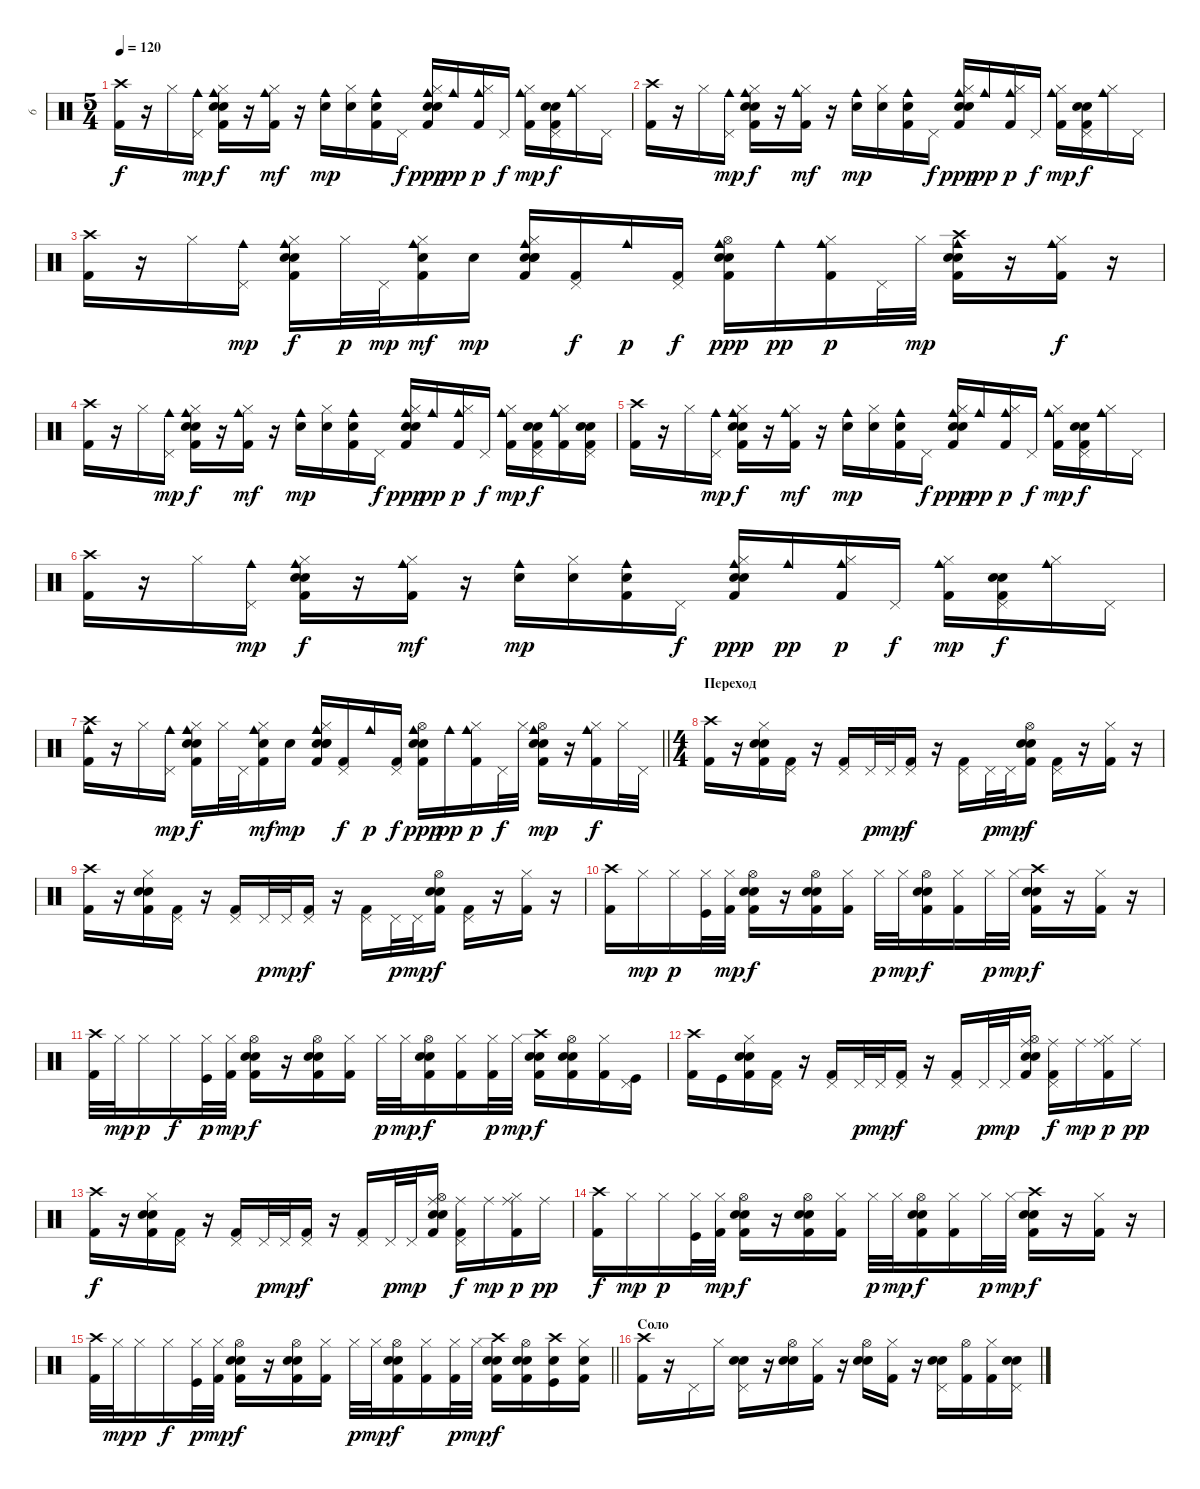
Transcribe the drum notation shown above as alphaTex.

\track ("6" "6") {instrument percussion}
\staff {score}
\articulation defaults
\ts (5 4)
\tempo 120
\clef neutral
\ks c
("Crash high (hit)" "Kick (hit) 2").16{dy f} r.16 "Hi-Hat (closed)".16 ("Pedal Hi-Hat (hit)" "Cowbell medium (hit)").16{dy mp} ("Hi-Hat (closed)" "Cowbell medium (hit)" "Kick (hit) 2" "Snare (hit)" "Snare (hit) 2").16{dy f} r.16 ("Hi-Hat (closed)" "Cowbell medium (hit)" "Kick (hit) 2").16{dy mf} r.16 ("Cowbell medium (hit)" "Snare (hit) 2").16{dy mp} ("Hi-Hat (closed)" "Snare (hit) 2").16 ("Cowbell medium (hit)" "Snare (hit) 2" "Kick (hit) 2").16 "Pedal Hi-Hat (hit)".16{dy f} ("Hi-Hat (closed)" "Cowbell medium (hit)" "Kick (hit) 2" "Snare (hit)" "Snare (hit) 2").16{dy ppp} "Cowbell medium (hit)".16{dy pp} ("Hi-Hat (closed)" "Cowbell medium (hit)" "Kick (hit) 2").16{dy p} "Pedal Hi-Hat (hit)".16{dy f} ("Hi-Hat (closed)" "Cowbell medium (hit)" "Kick (hit) 2").16{dy mp} ("Pedal Hi-Hat (hit)" "Kick (hit) 2" "Snare (hit)" "Snare (hit) 2").16{dy f} ("Hi-Hat (closed)" "Cowbell medium (hit)").16 "Pedal Hi-Hat (hit)".16 |
("Crash high (hit)" "Kick (hit) 2").16 r.16 "Hi-Hat (closed)".16 ("Pedal Hi-Hat (hit)" "Cowbell medium (hit)").16{dy mp} ("Hi-Hat (closed)" "Cowbell medium (hit)" "Kick (hit) 2" "Snare (hit)" "Snare (hit) 2").16{dy f} r.16 ("Hi-Hat (closed)" "Cowbell medium (hit)" "Kick (hit) 2").16{dy mf} r.16 ("Cowbell medium (hit)" "Snare (hit) 2").16{dy mp} ("Hi-Hat (closed)" "Snare (hit) 2").16 ("Cowbell medium (hit)" "Snare (hit) 2" "Kick (hit) 2").16 "Pedal Hi-Hat (hit)".16{dy f} ("Hi-Hat (closed)" "Cowbell medium (hit)" "Kick (hit) 2" "Snare (hit)" "Snare (hit) 2").16{dy ppp} "Cowbell medium (hit)".16{dy pp} ("Hi-Hat (closed)" "Cowbell medium (hit)" "Kick (hit) 2").16{dy p} "Pedal Hi-Hat (hit)".16{dy f} ("Hi-Hat (closed)" "Cowbell medium (hit)" "Kick (hit) 2").16{dy mp} ("Pedal Hi-Hat (hit)" "Kick (hit) 2" "Snare (hit)" "Snare (hit) 2").16{dy f} ("Hi-Hat (closed)" "Cowbell medium (hit)").16 "Pedal Hi-Hat (hit)".16 |
("Crash high (hit)" "Kick (hit) 2").16 r.16 "Hi-Hat (closed)".16 ("Pedal Hi-Hat (hit)" "Cowbell medium (hit)").16{dy mp} ("Hi-Hat (closed)" "Cowbell medium (hit)" "Kick (hit) 2" "Snare (hit)" "Snare (hit) 2").16{dy f} "Hi-Hat (closed)".32{dy p} "Pedal Hi-Hat (hit)".32{dy mp} ("Hi-Hat (closed)" "Snare (hit) 2" "Cowbell medium (hit)" "Kick (hit) 2").16{dy mf} "Snare (hit) 2".16{dy mp} ("Hi-Hat (closed)" "Snare (hit) 2" "Cowbell medium (hit)" "Kick (hit) 2" "Snare (hit)" "Snare (hit) 2").16 ("Pedal Hi-Hat (hit)" "Kick (hit) 2").16{dy f} "Cowbell medium (hit)".16{dy p} ("Pedal Hi-Hat (hit)" "Kick (hit) 2").16{dy f} ("Hi-Hat (open)" "Cowbell medium (hit)" "Kick (hit) 2" "Snare (hit)" "Snare (hit) 2").16{dy ppp} "Cowbell medium (hit)".16{dy pp} ("Hi-Hat (closed)" "Cowbell medium (hit)" "Kick (hit) 2").16{dy p} "Pedal Hi-Hat (hit)".32 "Hi-Hat (closed)".32{dy mp} ("Crash high (hit)" "Cowbell medium (hit)" "Kick (hit) 2" "Snare (hit)" "Snare (hit) 2").16 r.16 ("Hi-Hat (closed)" "Cowbell medium (hit)" "Kick (hit) 2").16{dy f} r.16 |
("Crash high (hit)" "Kick (hit) 2").16 r.16 "Hi-Hat (closed)".16 ("Pedal Hi-Hat (hit)" "Cowbell medium (hit)").16{dy mp} ("Hi-Hat (closed)" "Cowbell medium (hit)" "Kick (hit) 2" "Snare (hit)" "Snare (hit) 2").16{dy f} r.16 ("Hi-Hat (closed)" "Cowbell medium (hit)" "Kick (hit) 2").16{dy mf} r.16 ("Cowbell medium (hit)" "Snare (hit) 2").16{dy mp} ("Hi-Hat (closed)" "Snare (hit) 2").16 ("Cowbell medium (hit)" "Snare (hit) 2" "Kick (hit) 2").16 "Pedal Hi-Hat (hit)".16{dy f} ("Hi-Hat (closed)" "Cowbell medium (hit)" "Kick (hit) 2" "Snare (hit)" "Snare (hit) 2").16{dy ppp} "Cowbell medium (hit)".16{dy pp} ("Hi-Hat (closed)" "Cowbell medium (hit)" "Kick (hit) 2").16{dy p} "Pedal Hi-Hat (hit)".16{dy f} ("Hi-Hat (closed)" "Cowbell medium (hit)" "Kick (hit) 2").16{dy mp} ("Pedal Hi-Hat (hit)" "Kick (hit) 2" "Snare (hit)" "Snare (hit) 2").16{dy f} ("Hi-Hat (closed)" "Cowbell medium (hit)" "Kick (hit) 2").16 ("Pedal Hi-Hat (hit)" "Kick (hit) 2" "Snare (hit)" "Snare (hit) 2").16 |
("Crash high (hit)" "Kick (hit) 2").16 r.16 "Hi-Hat (closed)".16 ("Pedal Hi-Hat (hit)" "Cowbell medium (hit)").16{dy mp} ("Hi-Hat (closed)" "Cowbell medium (hit)" "Kick (hit) 2" "Snare (hit)" "Snare (hit) 2").16{dy f} r.16 ("Hi-Hat (closed)" "Cowbell medium (hit)" "Kick (hit) 2").16{dy mf} r.16 ("Cowbell medium (hit)" "Snare (hit) 2").16{dy mp} ("Hi-Hat (closed)" "Snare (hit) 2").16 ("Cowbell medium (hit)" "Snare (hit) 2" "Kick (hit) 2").16 "Pedal Hi-Hat (hit)".16{dy f} ("Hi-Hat (closed)" "Cowbell medium (hit)" "Kick (hit) 2" "Snare (hit)" "Snare (hit) 2").16{dy ppp} "Cowbell medium (hit)".16{dy pp} ("Hi-Hat (closed)" "Cowbell medium (hit)" "Kick (hit) 2").16{dy p} "Pedal Hi-Hat (hit)".16{dy f} ("Hi-Hat (closed)" "Cowbell medium (hit)" "Kick (hit) 2").16{dy mp} ("Pedal Hi-Hat (hit)" "Kick (hit) 2" "Snare (hit)" "Snare (hit) 2").16{dy f} ("Hi-Hat (closed)" "Cowbell medium (hit)").16 "Pedal Hi-Hat (hit)".16 |
("Crash high (hit)" "Kick (hit) 2").16 r.16 "Hi-Hat (closed)".16 ("Pedal Hi-Hat (hit)" "Cowbell medium (hit)").16{dy mp} ("Hi-Hat (closed)" "Cowbell medium (hit)" "Kick (hit) 2" "Snare (hit)" "Snare (hit) 2").16{dy f} r.16 ("Hi-Hat (closed)" "Cowbell medium (hit)" "Kick (hit) 2").16{dy mf} r.16 ("Cowbell medium (hit)" "Snare (hit) 2").16{dy mp} ("Hi-Hat (closed)" "Snare (hit) 2").16 ("Cowbell medium (hit)" "Snare (hit) 2" "Kick (hit) 2").16 "Pedal Hi-Hat (hit)".16{dy f} ("Hi-Hat (closed)" "Cowbell medium (hit)" "Kick (hit) 2" "Snare (hit)" "Snare (hit) 2").16{dy ppp} "Cowbell medium (hit)".16{dy pp} ("Hi-Hat (closed)" "Cowbell medium (hit)" "Kick (hit) 2").16{dy p} "Pedal Hi-Hat (hit)".16{dy f} ("Hi-Hat (closed)" "Cowbell medium (hit)" "Kick (hit) 2").16{dy mp} ("Pedal Hi-Hat (hit)" "Kick (hit) 2" "Snare (hit)" "Snare (hit) 2").16{dy f} ("Hi-Hat (closed)" "Cowbell medium (hit)").16 "Pedal Hi-Hat (hit)".16 |
\barLineRight lightlight
("Crash high (hit)" "Cowbell medium (hit)" "Kick (hit) 2").16 r.16 "Hi-Hat (closed)".16 ("Pedal Hi-Hat (hit)" "Cowbell medium (hit)").16{dy mp} ("Hi-Hat (closed)" "Cowbell medium (hit)" "Kick (hit) 2" "Snare (hit)" "Snare (hit) 2").16{dy f} "Hi-Hat (closed)".32 "Pedal Hi-Hat (hit)".32 ("Hi-Hat (closed)" "Snare (hit) 2" "Cowbell medium (hit)" "Kick (hit) 2").16{dy mf} "Snare (hit) 2".16{dy mp} ("Hi-Hat (closed)" "Snare (hit) 2" "Cowbell medium (hit)" "Kick (hit) 2" "Snare (hit)" "Snare (hit) 2").16 ("Pedal Hi-Hat (hit)" "Kick (hit) 2").16{dy f} "Cowbell medium (hit)".16{dy p} ("Pedal Hi-Hat (hit)" "Kick (hit) 2").16{dy f} ("Hi-Hat (open)" "Cowbell medium (hit)" "Kick (hit) 2" "Snare (hit)" "Snare (hit) 2").16{dy ppp} "Cowbell medium (hit)".16{dy pp} ("Hi-Hat (closed)" "Cowbell medium (hit)" "Kick (hit) 2").16{dy p} "Pedal Hi-Hat (hit)".32{dy f} "Hi-Hat (closed)".32 ("Hi-Hat (open)" "Cowbell medium (hit)" "Kick (hit) 2" "Snare (hit)" "Snare (hit) 2").16{dy mp} r.16 ("Hi-Hat (closed)" "Cowbell medium (hit)" "Kick (hit) 2").16{dy f} "Hi-Hat (closed)".32 "Pedal Hi-Hat (hit)".32 |
\ts (4 4)
\section ("" "Переход")
("Crash high (hit)" "Kick (hit) 2").16 r.16 ("Hi-Hat (closed)" "Kick (hit) 2" "Snare (hit)" "Snare (hit) 2").16 ("Pedal Hi-Hat (hit)" "Kick (hit) 2").16 r.16 ("Pedal Hi-Hat (hit)" "Kick (hit) 2").16 "Pedal Hi-Hat (hit)".32{dy p} "Pedal Hi-Hat (hit)".32{dy mp} ("Pedal Hi-Hat (hit)" "Kick (hit) 2").16{dy f} r.16 ("Pedal Hi-Hat (hit)" "Kick (hit) 2").16 "Pedal Hi-Hat (hit)".32{dy p} "Pedal Hi-Hat (hit)".32{dy mp} ("Hi-Hat (open)" "Kick (hit) 2" "Snare (hit)" "Snare (hit) 2").16{dy f} ("Pedal Hi-Hat (hit)" "Kick (hit) 2").16 r.16 ("Hi-Hat (closed)" "Kick (hit) 2").16 r.16 |
("Crash high (hit)" "Kick (hit) 2").16 r.16 ("Hi-Hat (closed)" "Kick (hit) 2" "Snare (hit)" "Snare (hit) 2").16 ("Pedal Hi-Hat (hit)" "Kick (hit) 2").16 r.16 ("Pedal Hi-Hat (hit)" "Kick (hit) 2").16 "Pedal Hi-Hat (hit)".32{dy p} "Pedal Hi-Hat (hit)".32{dy mp} ("Pedal Hi-Hat (hit)" "Kick (hit) 2").16{dy f} r.16 ("Pedal Hi-Hat (hit)" "Kick (hit) 2").16 "Pedal Hi-Hat (hit)".32{dy p} "Pedal Hi-Hat (hit)".32{dy mp} ("Hi-Hat (open)" "Kick (hit) 2" "Snare (hit)" "Snare (hit) 2").16{dy f} ("Pedal Hi-Hat (hit)" "Kick (hit) 2").16 r.16 ("Hi-Hat (closed)" "Kick (hit) 2").16 r.16 |
("Crash high (hit)" "Kick (hit) 2").16 "Hi-Hat (closed)".16{dy mp} "Hi-Hat (closed)".16{dy p} ("Hi-Hat (closed)" "Kick (hit)").32 ("Hi-Hat (closed)" "Kick (hit) 2").32{dy mp} ("Hi-Hat (open)" "Kick (hit) 2" "Snare (hit)" "Snare (hit) 2").16{dy f} r.16 ("Hi-Hat (open)" "Kick (hit) 2" "Snare (hit)" "Snare (hit) 2").16 ("Hi-Hat (closed)" "Kick (hit) 2").16 "Hi-Hat (closed)".32{dy p} "Hi-Hat (closed)".32{dy mp} ("Hi-Hat (open)" "Kick (hit) 2" "Snare (hit)" "Snare (hit) 2").16{dy f} ("Hi-Hat (closed)" "Kick (hit) 2").16 "Hi-Hat (closed)".32{dy p} "Hi-Hat (closed)".32{dy mp} ("Crash high (hit)" "Kick (hit) 2" "Snare (hit)" "Snare (hit) 2").16{dy f} r.16 ("Hi-Hat (closed)" "Kick (hit) 2").16 r.16 |
("Crash high (hit)" "Kick (hit) 2").32 "Hi-Hat (closed)".32{dy mp} "Hi-Hat (closed)".16{dy p} "Hi-Hat (closed)".16{dy f} ("Hi-Hat (closed)" "Kick (hit)").32{dy p} ("Hi-Hat (closed)" "Kick (hit) 2").32{dy mp} ("Hi-Hat (open)" "Kick (hit) 2" "Snare (hit)" "Snare (hit) 2").16{dy f} r.16 ("Hi-Hat (open)" "Kick (hit) 2" "Snare (hit)" "Snare (hit) 2").16 ("Hi-Hat (closed)" "Kick (hit) 2").16 "Hi-Hat (closed)".32{dy p} "Hi-Hat (closed)".32{dy mp} ("Hi-Hat (open)" "Kick (hit) 2" "Snare (hit)" "Snare (hit) 2").16{dy f} ("Hi-Hat (closed)" "Kick (hit) 2").16 ("Hi-Hat (closed)" "Kick (hit) 2").32{dy p} "Hi-Hat (closed)".32{dy mp} ("Crash high (hit)" "Kick (hit) 2" "Snare (hit)" "Snare (hit) 2").16{dy f} ("Hi-Hat (open)" "Kick (hit) 2" "Snare (hit)" "Snare (hit) 2").16 ("Hi-Hat (closed)" "Kick (hit) 2").16 ("Pedal Hi-Hat (hit)" "Kick (hit)").16 |
("Crash high (hit)" "Kick (hit) 2").16 "Kick (hit)".16 ("Hi-Hat (closed)" "Kick (hit) 2" "Snare (hit)" "Snare (hit) 2").16 ("Pedal Hi-Hat (hit)" "Kick (hit) 2").16 r.16 ("Pedal Hi-Hat (hit)" "Kick (hit) 2").16 "Pedal Hi-Hat (hit)".32{dy p} "Pedal Hi-Hat (hit)".32{dy mp} ("Pedal Hi-Hat (hit)" "Kick (hit) 2").16{dy f} r.16 ("Pedal Hi-Hat (hit)" "Kick (hit) 2").16 "Pedal Hi-Hat (hit)".32{dy p} "Pedal Hi-Hat (hit)".32{dy mp} ("Hi-Hat (open)" "Ride (middle)" "Kick (hit) 2" "Snare (hit)" "Snare (hit) 2").16 ("Pedal Hi-Hat (hit)" "Ride (middle)" "Kick (hit) 2").16{dy f} "Ride (middle)".16{dy mp} ("Hi-Hat (closed)" "Ride (middle)" "Kick (hit) 2").16{dy p} "Ride (middle)".16{dy pp} |
("Crash high (hit)" "Kick (hit) 2").16{dy f} r.16 ("Hi-Hat (closed)" "Kick (hit) 2" "Snare (hit)" "Snare (hit) 2").16 ("Pedal Hi-Hat (hit)" "Kick (hit) 2").16 r.16 ("Pedal Hi-Hat (hit)" "Kick (hit) 2").16 "Pedal Hi-Hat (hit)".32{dy p} "Pedal Hi-Hat (hit)".32{dy mp} ("Pedal Hi-Hat (hit)" "Kick (hit) 2").16{dy f} r.16 ("Pedal Hi-Hat (hit)" "Kick (hit) 2").16 "Pedal Hi-Hat (hit)".32{dy p} "Pedal Hi-Hat (hit)".32{dy mp} ("Hi-Hat (open)" "Ride (middle)" "Kick (hit) 2" "Snare (hit)" "Snare (hit) 2").16 ("Pedal Hi-Hat (hit)" "Ride (middle)" "Kick (hit) 2").16{dy f} "Ride (middle)".16{dy mp} ("Hi-Hat (closed)" "Ride (middle)" "Kick (hit) 2").16{dy p} "Ride (middle)".16{dy pp} |
("Crash high (hit)" "Kick (hit) 2").16{dy f} "Hi-Hat (closed)".16{dy mp} "Hi-Hat (closed)".16{dy p} ("Hi-Hat (closed)" "Kick (hit)").32 ("Hi-Hat (closed)" "Kick (hit) 2").32{dy mp} ("Hi-Hat (open)" "Kick (hit) 2" "Snare (hit)" "Snare (hit) 2").16{dy f} r.16 ("Hi-Hat (open)" "Kick (hit) 2" "Snare (hit)" "Snare (hit) 2").16 ("Hi-Hat (closed)" "Kick (hit) 2").16 "Hi-Hat (closed)".32{dy p} "Hi-Hat (closed)".32{dy mp} ("Hi-Hat (open)" "Kick (hit) 2" "Snare (hit)" "Snare (hit) 2").16{dy f} ("Hi-Hat (closed)" "Kick (hit) 2").16 "Hi-Hat (closed)".32{dy p} "Hi-Hat (closed)".32{dy mp} ("Crash high (hit)" "Kick (hit) 2" "Snare (hit)" "Snare (hit) 2").16{dy f} r.16 ("Hi-Hat (closed)" "Kick (hit) 2").16 r.16 |
\barLineRight lightlight
("Crash high (hit)" "Kick (hit) 2").32 "Hi-Hat (closed)".32{dy mp} "Hi-Hat (closed)".16{dy p} "Hi-Hat (closed)".16{dy f} ("Hi-Hat (closed)" "Kick (hit)").32{dy p} ("Hi-Hat (closed)" "Kick (hit) 2").32{dy mp} ("Hi-Hat (open)" "Kick (hit) 2" "Snare (hit)" "Snare (hit) 2").16{dy f} r.16 ("Hi-Hat (open)" "Kick (hit) 2" "Snare (hit)" "Snare (hit) 2").16 ("Hi-Hat (closed)" "Kick (hit) 2").16 "Hi-Hat (closed)".32{dy p} "Hi-Hat (closed)".32{dy mp} ("Hi-Hat (open)" "Kick (hit) 2" "Snare (hit)" "Snare (hit) 2").16{dy f} ("Hi-Hat (closed)" "Kick (hit) 2").16 ("Hi-Hat (closed)" "Kick (hit) 2").32{dy p} "Hi-Hat (closed)".32{dy mp} ("Crash high (hit)" "Kick (hit) 2" "Snare (hit)" "Snare (hit) 2").16{dy f} ("Hi-Hat (open)" "Kick (hit) 2" "Snare (hit)" "Snare (hit) 2").16 ("Crash high (hit)" "Kick (hit)" "Snare (hit)").16 ("Hi-Hat (closed)" "Kick (hit) 2" "Snare (hit) 2").16 |
\section ("" "Соло")
("Crash high (hit)" "Kick (hit) 2").16 r.16 "Pedal Hi-Hat (hit)".16 "Hi-Hat (closed)".16 ("Pedal Hi-Hat (hit)" "Snare (hit)" "Snare (hit) 2").16 r.16 ("Hi-Hat (open)" "Snare (hit)" "Snare (hit) 2").16 ("Hi-Hat (closed)" "Kick (hit) 2").16 r.16 ("Hi-Hat (open)" "Snare (hit)" "Snare (hit) 2").16 ("Hi-Hat (closed)" "Kick (hit) 2").16 r.16 ("Pedal Hi-Hat (hit)" "Snare (hit)" "Snare (hit) 2").16 ("Hi-Hat (open)" "Kick (hit) 2").16 ("Hi-Hat (closed)" "Kick (hit) 2").16 ("Pedal Hi-Hat (hit)" "Snare (hit)" "Snare (hit) 2").16
